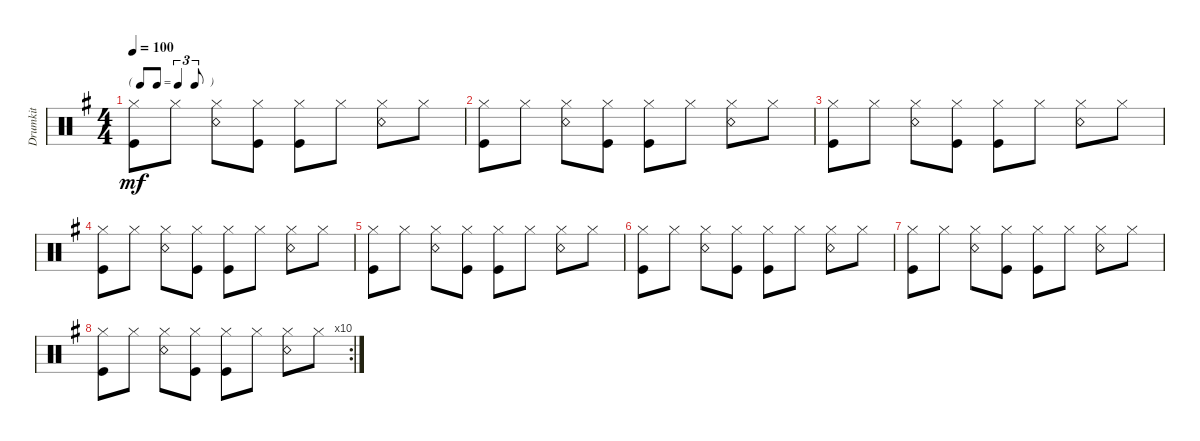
\track ("Drumkit" "Drumkit") {instrument percussion}
\staff {score}
\articulation defaults
\ts (4 4)
\tf triplet8th
\tempo 100
\clef neutral
\ks g
("Hi-Hat (closed)" "Kick (hit)").8{dy mf} "Hi-Hat (closed)".8 ("Hi-Hat (closed)" "Snare (rim shot)").8 ("Hi-Hat (closed)" "Kick (hit)").8 ("Hi-Hat (closed)" "Kick (hit)").8 "Hi-Hat (closed)".8 ("Hi-Hat (closed)" "Snare (rim shot)").8 "Hi-Hat (closed)".8 |
("Hi-Hat (closed)" "Kick (hit)").8 "Hi-Hat (closed)".8 ("Hi-Hat (closed)" "Snare (rim shot)").8 ("Hi-Hat (closed)" "Kick (hit)").8 ("Hi-Hat (closed)" "Kick (hit)").8 "Hi-Hat (closed)".8 ("Hi-Hat (closed)" "Snare (rim shot)").8 "Hi-Hat (closed)".8 |
("Hi-Hat (closed)" "Kick (hit)").8 "Hi-Hat (closed)".8 ("Hi-Hat (closed)" "Snare (rim shot)").8 ("Hi-Hat (closed)" "Kick (hit)").8 ("Hi-Hat (closed)" "Kick (hit)").8 "Hi-Hat (closed)".8 ("Hi-Hat (closed)" "Snare (rim shot)").8 "Hi-Hat (closed)".8 |
("Hi-Hat (closed)" "Kick (hit)").8 "Hi-Hat (closed)".8 ("Hi-Hat (closed)" "Snare (rim shot)").8 ("Hi-Hat (closed)" "Kick (hit)").8 ("Hi-Hat (closed)" "Kick (hit)").8 "Hi-Hat (closed)".8 ("Hi-Hat (closed)" "Snare (rim shot)").8 "Hi-Hat (closed)".8 |
("Hi-Hat (closed)" "Kick (hit)").8 "Hi-Hat (closed)".8 ("Hi-Hat (closed)" "Snare (rim shot)").8 ("Hi-Hat (closed)" "Kick (hit)").8 ("Hi-Hat (closed)" "Kick (hit)").8 "Hi-Hat (closed)".8 ("Hi-Hat (closed)" "Snare (rim shot)").8 "Hi-Hat (closed)".8 |
("Hi-Hat (closed)" "Kick (hit)").8 "Hi-Hat (closed)".8 ("Hi-Hat (closed)" "Snare (rim shot)").8 ("Hi-Hat (closed)" "Kick (hit)").8 ("Hi-Hat (closed)" "Kick (hit)").8 "Hi-Hat (closed)".8 ("Hi-Hat (closed)" "Snare (rim shot)").8 "Hi-Hat (closed)".8 |
("Hi-Hat (closed)" "Kick (hit)").8 "Hi-Hat (closed)".8 ("Hi-Hat (closed)" "Snare (rim shot)").8 ("Hi-Hat (closed)" "Kick (hit)").8 ("Hi-Hat (closed)" "Kick (hit)").8 "Hi-Hat (closed)".8 ("Hi-Hat (closed)" "Snare (rim shot)").8 "Hi-Hat (closed)".8 |
\rc 10
("Hi-Hat (closed)" "Kick (hit)").8 "Hi-Hat (closed)".8 ("Hi-Hat (closed)" "Snare (rim shot)").8 ("Hi-Hat (closed)" "Kick (hit)").8 ("Hi-Hat (closed)" "Kick (hit)").8 "Hi-Hat (closed)".8 ("Hi-Hat (closed)" "Snare (rim shot)").8 "Hi-Hat (closed)".8
